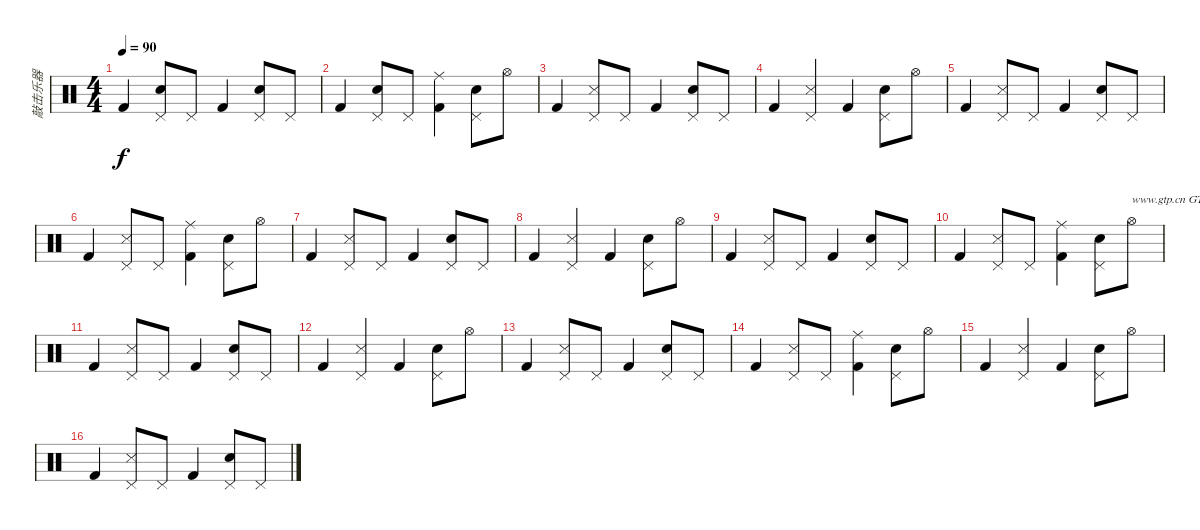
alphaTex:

\track ("敲击乐器" "敲击乐器") {instrument percussion}
\staff {score}
\articulation defaults
\ts (4 4)
\tempo 90
\clef neutral
\ks c "Kick (hit) 2".4{dy f}
("Snare (hit) 2" "Pedal Hi-Hat (hit)").8 "Pedal Hi-Hat (hit)".8 "Kick (hit) 2".4 ("Snare (hit) 2" "Pedal Hi-Hat (hit)").8 "Pedal Hi-Hat (hit)".8 |
"Kick (hit) 2".4 ("Snare (hit) 2" "Pedal Hi-Hat (hit)").8 "Pedal Hi-Hat (hit)".8 ("Ride (middle)" "Kick (hit) 2").4 ("Snare (hit) 2" "Pedal Hi-Hat (hit)").8 "Hi-Hat (open)".8 |
"Kick (hit) 2".4 ("Metronome (hit)" "Pedal Hi-Hat (hit)").8 "Pedal Hi-Hat (hit)".8 "Kick (hit) 2".4 ("Snare (hit) 2" "Pedal Hi-Hat (hit)").8 "Pedal Hi-Hat (hit)".8 |
"Kick (hit) 2".4 ("Metronome (hit)" "Pedal Hi-Hat (hit)").4 "Kick (hit) 2".4 ("Snare (hit) 2" "Pedal Hi-Hat (hit)").8 "Hi-Hat (open)".8 |
"Kick (hit) 2".4 ("Metronome (hit)" "Pedal Hi-Hat (hit)").8 "Pedal Hi-Hat (hit)".8 "Kick (hit) 2".4 ("Snare (hit) 2" "Pedal Hi-Hat (hit)").8 "Pedal Hi-Hat (hit)".8 |
"Kick (hit) 2".4 ("Metronome (hit)" "Pedal Hi-Hat (hit)").8 "Pedal Hi-Hat (hit)".8 ("Ride (middle)" "Kick (hit) 2").4 ("Snare (hit) 2" "Pedal Hi-Hat (hit)").8 "Hi-Hat (open)".8 |
"Kick (hit) 2".4 ("Metronome (hit)" "Pedal Hi-Hat (hit)").8 "Pedal Hi-Hat (hit)".8 "Kick (hit) 2".4 ("Snare (hit) 2" "Pedal Hi-Hat (hit)").8 "Pedal Hi-Hat (hit)".8 |
"Kick (hit) 2".4 ("Metronome (hit)" "Pedal Hi-Hat (hit)").4 "Kick (hit) 2".4 ("Snare (hit) 2" "Pedal Hi-Hat (hit)").8 "Hi-Hat (open)".8 |
"Kick (hit) 2".4 ("Metronome (hit)" "Pedal Hi-Hat (hit)").8 "Pedal Hi-Hat (hit)".8 "Kick (hit) 2".4 ("Snare (hit) 2" "Pedal Hi-Hat (hit)").8 "Pedal Hi-Hat (hit)".8 |
"Kick (hit) 2".4 ("Metronome (hit)" "Pedal Hi-Hat (hit)").8 "Pedal Hi-Hat (hit)".8 ("Ride (middle)" "Kick (hit) 2").4 ("Snare (hit) 2" "Pedal Hi-Hat (hit)").8 "Hi-Hat (open)".8{txt "www.gtp.cn GTP中文娱乐网为您提供优秀的谱子"} |
"Kick (hit) 2".4 ("Metronome (hit)" "Pedal Hi-Hat (hit)").8 "Pedal Hi-Hat (hit)".8 "Kick (hit) 2".4 ("Snare (hit) 2" "Pedal Hi-Hat (hit)").8 "Pedal Hi-Hat (hit)".8 |
"Kick (hit) 2".4 ("Metronome (hit)" "Pedal Hi-Hat (hit)").4 "Kick (hit) 2".4 ("Snare (hit) 2" "Pedal Hi-Hat (hit)").8 "Hi-Hat (open)".8 |
"Kick (hit) 2".4 ("Metronome (hit)" "Pedal Hi-Hat (hit)").8 "Pedal Hi-Hat (hit)".8 "Kick (hit) 2".4 ("Snare (hit) 2" "Pedal Hi-Hat (hit)").8 "Pedal Hi-Hat (hit)".8 |
"Kick (hit) 2".4 ("Metronome (hit)" "Pedal Hi-Hat (hit)").8 "Pedal Hi-Hat (hit)".8 ("Ride (middle)" "Kick (hit) 2").4 ("Snare (hit) 2" "Pedal Hi-Hat (hit)").8 "Hi-Hat (open)".8 |
"Kick (hit) 2".4 ("Metronome (hit)" "Pedal Hi-Hat (hit)").4 "Kick (hit) 2".4 ("Snare (hit) 2" "Pedal Hi-Hat (hit)").8 "Hi-Hat (open)".8 |
"Kick (hit) 2".4 ("Metronome (hit)" "Pedal Hi-Hat (hit)").8 "Pedal Hi-Hat (hit)".8 "Kick (hit) 2".4 ("Snare (hit) 2" "Pedal Hi-Hat (hit)").8 "Pedal Hi-Hat (hit)".8
